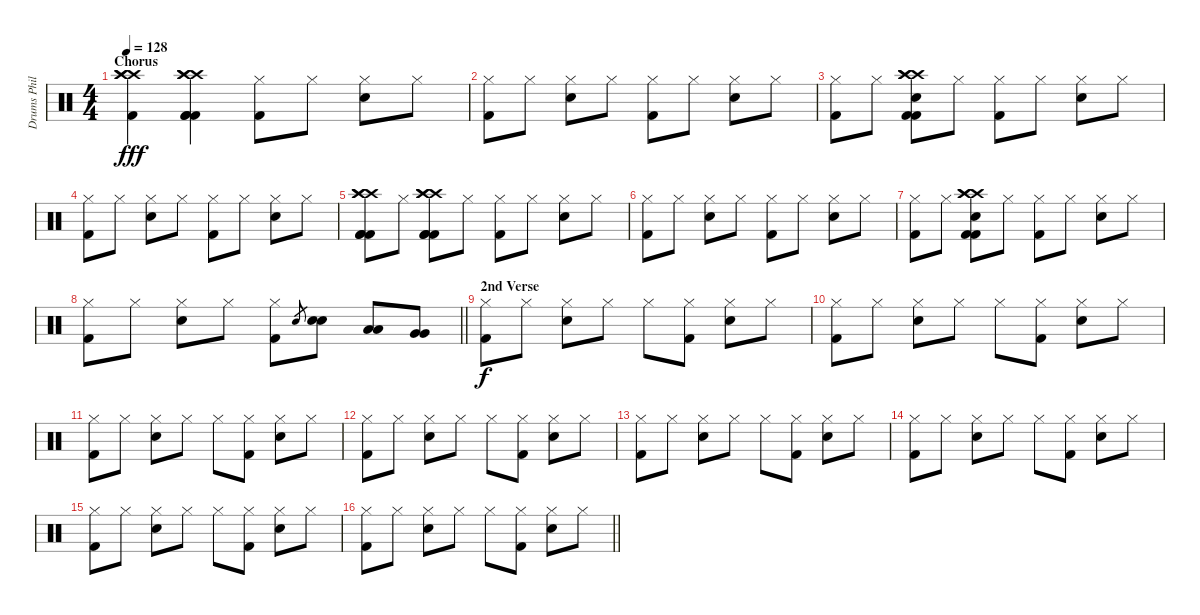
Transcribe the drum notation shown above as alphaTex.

\track ("Drums Phil Rudd" "Drums Phil") {instrument percussion}
\staff {score}
\articulation defaults
\ts (4 4)
\section ("" "Chorus")
\tempo 128
\clef neutral
\ks c
("Crash high (hit)" "Crash high (hit)" "Crash high (hit)" "Kick (hit) 2").4{dy fff} ("Crash high (hit)" "Crash high (hit)" "Crash high (hit)" "Kick (hit) 2" "Kick (hit) 2" "Kick (hit) 2").4 ("Hi-Hat (closed)" "Kick (hit) 2").8 "Hi-Hat (closed)".8 ("Hi-Hat (closed)" "Electric Snare (hit)").8 "Hi-Hat (closed)".8 |
("Hi-Hat (closed)" "Kick (hit) 2").8 "Hi-Hat (closed)".8 ("Hi-Hat (closed)" "Electric Snare (hit)").8 "Hi-Hat (closed)".8 ("Hi-Hat (closed)" "Kick (hit) 2").8 "Hi-Hat (closed)".8 ("Hi-Hat (closed)" "Electric Snare (hit)").8 "Hi-Hat (closed)".8 |
("Hi-Hat (closed)" "Kick (hit) 2").8 "Hi-Hat (closed)".8 ("Crash high (hit)" "Crash high (hit)" "Crash high (hit)" "Electric Snare (hit)" "Kick (hit) 2" "Kick (hit) 2").8 "Hi-Hat (closed)".8 ("Hi-Hat (closed)" "Kick (hit) 2").8 "Hi-Hat (closed)".8 ("Hi-Hat (closed)" "Electric Snare (hit)").8 "Hi-Hat (closed)".8 |
("Hi-Hat (closed)" "Kick (hit) 2").8 "Hi-Hat (closed)".8 ("Hi-Hat (closed)" "Electric Snare (hit)").8 "Hi-Hat (closed)".8 ("Hi-Hat (closed)" "Kick (hit) 2").8 "Hi-Hat (closed)".8 ("Hi-Hat (closed)" "Electric Snare (hit)").8 "Hi-Hat (closed)".8 |
("Crash high (hit)" "Crash high (hit)" "Crash high (hit)" "Kick (hit) 2" "Kick (hit) 2" "Kick (hit) 2").8 "Hi-Hat (closed)".8 ("Crash high (hit)" "Crash high (hit)" "Crash high (hit)" "Kick (hit) 2" "Kick (hit) 2" "Kick (hit) 2").8 "Hi-Hat (closed)".8 ("Hi-Hat (closed)" "Kick (hit) 2").8 "Hi-Hat (closed)".8 ("Hi-Hat (closed)" "Electric Snare (hit)").8 "Hi-Hat (closed)".8 |
("Hi-Hat (closed)" "Kick (hit) 2").8 "Hi-Hat (closed)".8 ("Hi-Hat (closed)" "Electric Snare (hit)").8 "Hi-Hat (closed)".8 ("Hi-Hat (closed)" "Kick (hit) 2").8 "Hi-Hat (closed)".8 ("Hi-Hat (closed)" "Electric Snare (hit)").8 "Hi-Hat (closed)".8 |
("Hi-Hat (closed)" "Kick (hit) 2").8 "Hi-Hat (closed)".8 ("Crash high (hit)" "Crash high (hit)" "Crash high (hit)" "Electric Snare (hit)" "Kick (hit) 2" "Kick (hit) 2").8 "Hi-Hat (closed)".8 ("Hi-Hat (closed)" "Kick (hit) 2").8 "Hi-Hat (closed)".8 ("Hi-Hat (closed)" "Electric Snare (hit)").8 "Hi-Hat (closed)".8 |
\barLineRight lightlight
("Hi-Hat (closed)" "Kick (hit) 2").8 "Hi-Hat (closed)".8 ("Hi-Hat (closed)" "Electric Snare (hit)").8 "Hi-Hat (closed)".8 ("Hi-Hat (closed)" "Kick (hit) 2").8 "Electric Snare (hit)".8{gr} ("Electric Snare (hit)" "Electric Snare (hit)").8 ("Low Tom (hit)" "Low Tom (hit)").8 ("Very Low Tom (hit)" "Very Low Tom (hit)").8 |
\section ("" "2nd Verse")
("Hi-Hat (closed)" "Kick (hit) 2").8{dy f} "Hi-Hat (closed)".8 ("Hi-Hat (closed)" "Electric Snare (hit)").8 "Hi-Hat (closed)".8 "Hi-Hat (closed)".8 ("Hi-Hat (closed)" "Kick (hit) 2").8 ("Hi-Hat (closed)" "Electric Snare (hit)").8 "Hi-Hat (closed)".8 |
("Hi-Hat (closed)" "Kick (hit) 2").8 "Hi-Hat (closed)".8 ("Hi-Hat (closed)" "Electric Snare (hit)").8 "Hi-Hat (closed)".8 "Hi-Hat (closed)".8 ("Hi-Hat (closed)" "Kick (hit) 2").8 ("Hi-Hat (closed)" "Electric Snare (hit)").8 "Hi-Hat (closed)".8 |
("Hi-Hat (closed)" "Kick (hit) 2").8 "Hi-Hat (closed)".8 ("Hi-Hat (closed)" "Electric Snare (hit)").8 "Hi-Hat (closed)".8 "Hi-Hat (closed)".8 ("Hi-Hat (closed)" "Kick (hit) 2").8 ("Hi-Hat (closed)" "Electric Snare (hit)").8 "Hi-Hat (closed)".8 |
("Hi-Hat (closed)" "Kick (hit) 2").8 "Hi-Hat (closed)".8 ("Hi-Hat (closed)" "Electric Snare (hit)").8 "Hi-Hat (closed)".8 "Hi-Hat (closed)".8 ("Hi-Hat (closed)" "Kick (hit) 2").8 ("Hi-Hat (closed)" "Electric Snare (hit)").8 "Hi-Hat (closed)".8 |
("Hi-Hat (closed)" "Kick (hit) 2").8 "Hi-Hat (closed)".8 ("Hi-Hat (closed)" "Electric Snare (hit)").8 "Hi-Hat (closed)".8 "Hi-Hat (closed)".8 ("Hi-Hat (closed)" "Kick (hit) 2").8 ("Hi-Hat (closed)" "Electric Snare (hit)").8 "Hi-Hat (closed)".8 |
("Hi-Hat (closed)" "Kick (hit) 2").8 "Hi-Hat (closed)".8 ("Hi-Hat (closed)" "Electric Snare (hit)").8 "Hi-Hat (closed)".8 "Hi-Hat (closed)".8 ("Hi-Hat (closed)" "Kick (hit) 2").8 ("Hi-Hat (closed)" "Electric Snare (hit)").8 "Hi-Hat (closed)".8 |
("Hi-Hat (closed)" "Kick (hit) 2").8 "Hi-Hat (closed)".8 ("Hi-Hat (closed)" "Electric Snare (hit)").8 "Hi-Hat (closed)".8 "Hi-Hat (closed)".8 ("Hi-Hat (closed)" "Kick (hit) 2").8 ("Hi-Hat (closed)" "Electric Snare (hit)").8 "Hi-Hat (closed)".8 |
\barLineRight lightlight
("Hi-Hat (closed)" "Kick (hit) 2").8 "Hi-Hat (closed)".8 ("Hi-Hat (closed)" "Electric Snare (hit)").8 "Hi-Hat (closed)".8 "Hi-Hat (closed)".8 ("Hi-Hat (closed)" "Kick (hit) 2").8 ("Hi-Hat (closed)" "Electric Snare (hit)").8 "Hi-Hat (closed)".8
